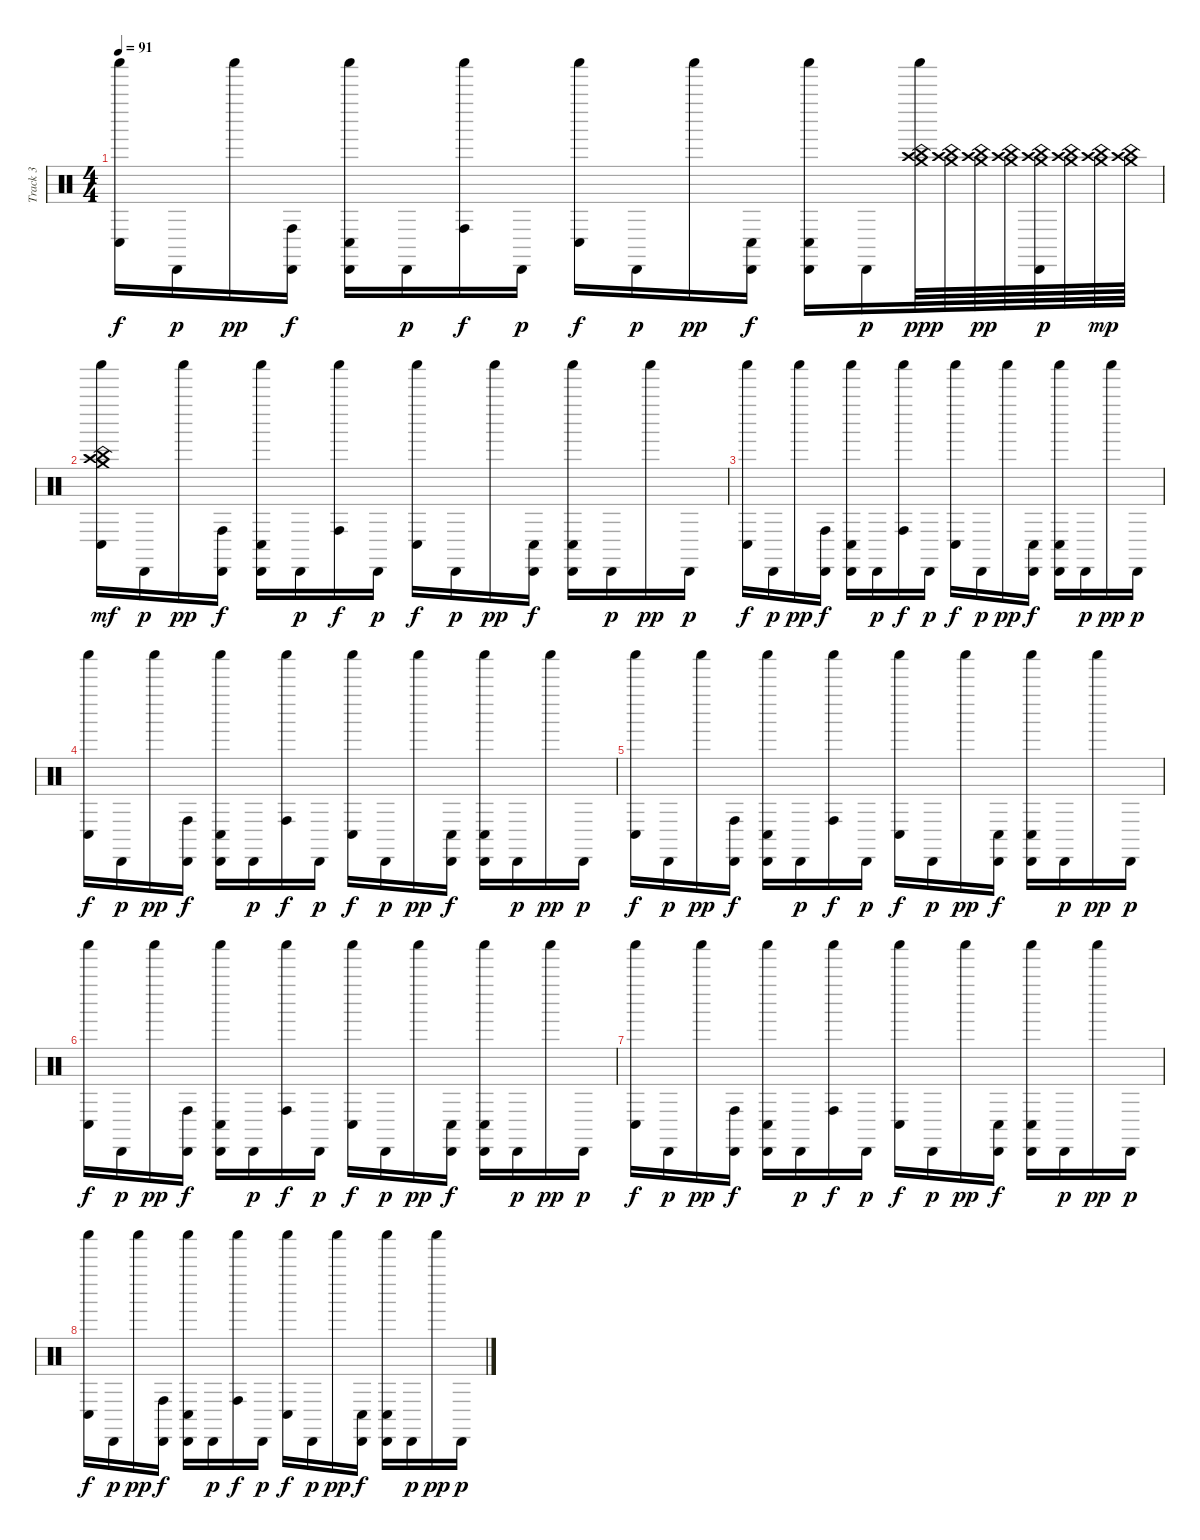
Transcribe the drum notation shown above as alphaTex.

\track ("Track 3" "Track 3") {instrument percussion}
\staff {score}
\articulation defaults
\ts (4 4)
\tempo 91
\clef neutral
\ks c
("Shaker (hit)" "Conga low (hit)").16{dy f} "Cabasa (hit)".16{dy p} "Shaker (hit)".16{dy pp} ("Cabasa (hit)" "Conga high (hit)").16{dy f} ("Cabasa (hit)" "Shaker (hit)" "Conga low (hit)").16 "Cabasa (hit)".16{dy p} ("Shaker (hit)" "Conga high (hit)").16{dy f} "Cabasa (hit)".16{dy p} ("Shaker (hit)" "Conga low (hit)").16{dy f} "Cabasa (hit)".16{dy p} "Shaker (hit)".16{dy pp} ("Cabasa (hit)" "Conga low (hit)").16{dy f} ("Cabasa (hit)" "Shaker (hit)" "Conga low (hit)").16 "Cabasa (hit)".16{dy p} ("Shaker (hit)" "China (hit)" "Crash medium (hit)" "Crash high (hit)").64{dy ppp} ("China (hit)" "Crash medium (hit)" "Crash high (hit)").64 ("China (hit)" "Crash medium (hit)" "Crash high (hit)").64{dy pp} ("China (hit)" "Crash medium (hit)" "Crash high (hit)").64 ("Cabasa (hit)" "China (hit)" "Crash medium (hit)" "Crash high (hit)").64{dy p} ("China (hit)" "Crash medium (hit)" "Crash high (hit)").64 ("China (hit)" "Crash medium (hit)" "Crash high (hit)").64{dy mp} ("China (hit)" "Crash medium (hit)" "Crash high (hit)").64 |
("China (hit)" "Shaker (hit)" "Crash medium (hit)" "Conga low (hit)" "Crash high (hit)").16{dy mf} "Cabasa (hit)".16{dy p} "Shaker (hit)".16{dy pp} ("Cabasa (hit)" "Conga high (hit)").16{dy f} ("Cabasa (hit)" "Shaker (hit)" "Conga low (hit)").16 "Cabasa (hit)".16{dy p} ("Shaker (hit)" "Conga high (hit)").16{dy f} "Cabasa (hit)".16{dy p} ("Shaker (hit)" "Conga low (hit)").16{dy f} "Cabasa (hit)".16{dy p} "Shaker (hit)".16{dy pp} ("Cabasa (hit)" "Conga low (hit)").16{dy f} ("Cabasa (hit)" "Shaker (hit)" "Conga low (hit)").16 "Cabasa (hit)".16{dy p} "Shaker (hit)".16{dy pp} "Cabasa (hit)".16{dy p} |
("Shaker (hit)" "Conga low (hit)").16{dy f} "Cabasa (hit)".16{dy p} "Shaker (hit)".16{dy pp} ("Cabasa (hit)" "Conga high (hit)").16{dy f} ("Cabasa (hit)" "Shaker (hit)" "Conga low (hit)").16 "Cabasa (hit)".16{dy p} ("Shaker (hit)" "Conga high (hit)").16{dy f} "Cabasa (hit)".16{dy p} ("Shaker (hit)" "Conga low (hit)").16{dy f} "Cabasa (hit)".16{dy p} "Shaker (hit)".16{dy pp} ("Cabasa (hit)" "Conga low (hit)").16{dy f} ("Cabasa (hit)" "Shaker (hit)" "Conga low (hit)").16 "Cabasa (hit)".16{dy p} "Shaker (hit)".16{dy pp} "Cabasa (hit)".16{dy p} |
("Shaker (hit)" "Conga low (hit)").16{dy f} "Cabasa (hit)".16{dy p} "Shaker (hit)".16{dy pp} ("Cabasa (hit)" "Conga high (hit)").16{dy f} ("Cabasa (hit)" "Shaker (hit)" "Conga low (hit)").16 "Cabasa (hit)".16{dy p} ("Shaker (hit)" "Conga high (hit)").16{dy f} "Cabasa (hit)".16{dy p} ("Shaker (hit)" "Conga low (hit)").16{dy f} "Cabasa (hit)".16{dy p} "Shaker (hit)".16{dy pp} ("Cabasa (hit)" "Conga low (hit)").16{dy f} ("Cabasa (hit)" "Shaker (hit)" "Conga low (hit)").16 "Cabasa (hit)".16{dy p} "Shaker (hit)".16{dy pp} "Cabasa (hit)".16{dy p} |
("Shaker (hit)" "Conga low (hit)").16{dy f} "Cabasa (hit)".16{dy p} "Shaker (hit)".16{dy pp} ("Cabasa (hit)" "Conga high (hit)").16{dy f} ("Cabasa (hit)" "Shaker (hit)" "Conga low (hit)").16 "Cabasa (hit)".16{dy p} ("Shaker (hit)" "Conga high (hit)").16{dy f} "Cabasa (hit)".16{dy p} ("Shaker (hit)" "Conga low (hit)").16{dy f} "Cabasa (hit)".16{dy p} "Shaker (hit)".16{dy pp} ("Cabasa (hit)" "Conga low (hit)").16{dy f} ("Cabasa (hit)" "Shaker (hit)" "Conga low (hit)").16 "Cabasa (hit)".16{dy p} "Shaker (hit)".16{dy pp} "Cabasa (hit)".16{dy p} |
("Shaker (hit)" "Conga low (hit)").16{dy f} "Cabasa (hit)".16{dy p} "Shaker (hit)".16{dy pp} ("Cabasa (hit)" "Conga high (hit)").16{dy f} ("Cabasa (hit)" "Shaker (hit)" "Conga low (hit)").16 "Cabasa (hit)".16{dy p} ("Shaker (hit)" "Conga high (hit)").16{dy f} "Cabasa (hit)".16{dy p} ("Shaker (hit)" "Conga low (hit)").16{dy f} "Cabasa (hit)".16{dy p} "Shaker (hit)".16{dy pp} ("Cabasa (hit)" "Conga low (hit)").16{dy f} ("Cabasa (hit)" "Shaker (hit)" "Conga low (hit)").16 "Cabasa (hit)".16{dy p} "Shaker (hit)".16{dy pp} "Cabasa (hit)".16{dy p} |
("Shaker (hit)" "Conga low (hit)").16{dy f} "Cabasa (hit)".16{dy p} "Shaker (hit)".16{dy pp} ("Cabasa (hit)" "Conga high (hit)").16{dy f} ("Cabasa (hit)" "Shaker (hit)" "Conga low (hit)").16 "Cabasa (hit)".16{dy p} ("Shaker (hit)" "Conga high (hit)").16{dy f} "Cabasa (hit)".16{dy p} ("Shaker (hit)" "Conga low (hit)").16{dy f} "Cabasa (hit)".16{dy p} "Shaker (hit)".16{dy pp} ("Cabasa (hit)" "Conga low (hit)").16{dy f} ("Cabasa (hit)" "Shaker (hit)" "Conga low (hit)").16 "Cabasa (hit)".16{dy p} "Shaker (hit)".16{dy pp} "Cabasa (hit)".16{dy p} |
("Shaker (hit)" "Conga low (hit)").16{dy f} "Cabasa (hit)".16{dy p} "Shaker (hit)".16{dy pp} ("Cabasa (hit)" "Conga high (hit)").16{dy f} ("Cabasa (hit)" "Shaker (hit)" "Conga low (hit)").16 "Cabasa (hit)".16{dy p} ("Shaker (hit)" "Conga high (hit)").16{dy f} "Cabasa (hit)".16{dy p} ("Shaker (hit)" "Conga low (hit)").16{dy f} "Cabasa (hit)".16{dy p} "Shaker (hit)".16{dy pp} ("Cabasa (hit)" "Conga low (hit)").16{dy f} ("Cabasa (hit)" "Shaker (hit)" "Conga low (hit)").16 "Cabasa (hit)".16{dy p} "Shaker (hit)".16{dy pp} "Cabasa (hit)".16{dy p}
